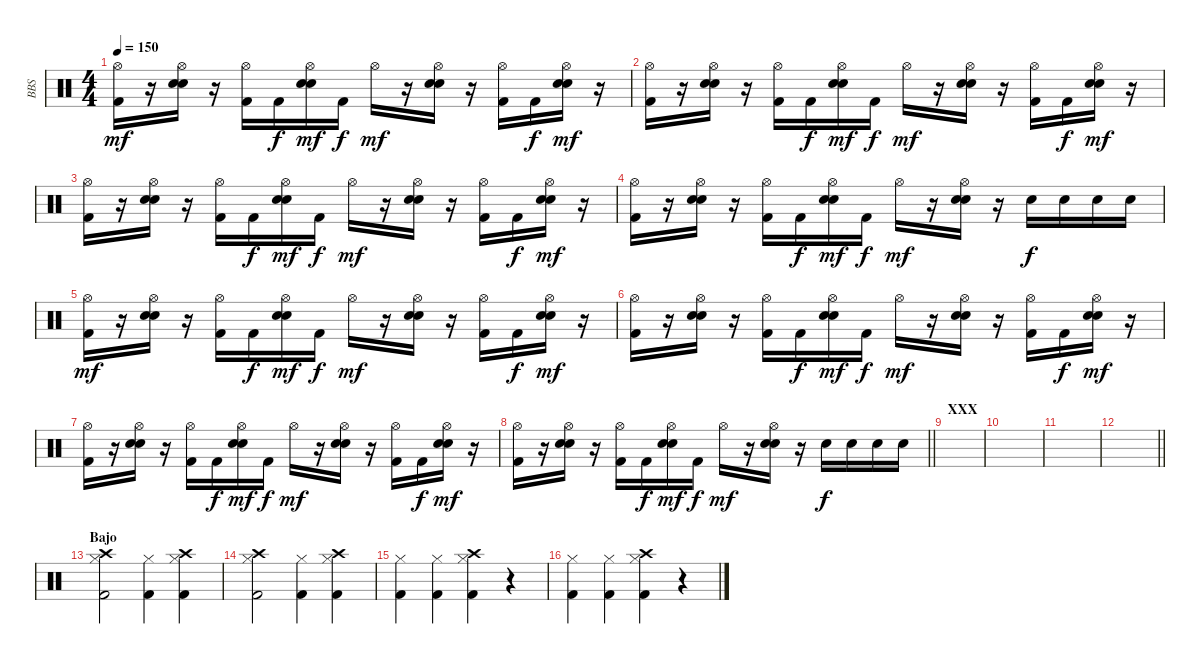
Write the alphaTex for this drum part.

\track ("BBS" "BBS") {instrument percussion}
\staff {score}
\articulation defaults
\ts (4 4)
\tempo 150
\clef neutral
\ks c
("Kick (hit) 2" "Hi-Hat (open)").16{dy mf} r.16 ("Electric Snare (hit)" "Electric Snare (hit)" "Hi-Hat (open)").16 r.16 ("Kick (hit) 2" "Hi-Hat (open)").16 "Kick (hit) 2".16{dy f} ("Electric Snare (hit)" "Electric Snare (hit)" "Hi-Hat (open)").16{dy mf} "Kick (hit) 2".16{dy f} "Hi-Hat (open)".16{dy mf} r.16 ("Electric Snare (hit)" "Electric Snare (hit)" "Hi-Hat (open)").16 r.16 ("Kick (hit) 2" "Hi-Hat (open)").16 "Kick (hit) 2".16{dy f} ("Electric Snare (hit)" "Electric Snare (hit)" "Hi-Hat (open)").16{dy mf} r.16 |
("Kick (hit) 2" "Hi-Hat (open)").16 r.16 ("Electric Snare (hit)" "Electric Snare (hit)" "Hi-Hat (open)").16 r.16 ("Kick (hit) 2" "Hi-Hat (open)").16 "Kick (hit) 2".16{dy f} ("Electric Snare (hit)" "Electric Snare (hit)" "Hi-Hat (open)").16{dy mf} "Kick (hit) 2".16{dy f} "Hi-Hat (open)".16{dy mf} r.16 ("Electric Snare (hit)" "Electric Snare (hit)" "Hi-Hat (open)").16 r.16 ("Kick (hit) 2" "Hi-Hat (open)").16 "Kick (hit) 2".16{dy f} ("Electric Snare (hit)" "Electric Snare (hit)" "Hi-Hat (open)").16{dy mf} r.16 |
("Kick (hit) 2" "Hi-Hat (open)").16 r.16 ("Electric Snare (hit)" "Electric Snare (hit)" "Hi-Hat (open)").16 r.16 ("Kick (hit) 2" "Hi-Hat (open)").16 "Kick (hit) 2".16{dy f} ("Electric Snare (hit)" "Electric Snare (hit)" "Hi-Hat (open)").16{dy mf} "Kick (hit) 2".16{dy f} "Hi-Hat (open)".16{dy mf} r.16 ("Electric Snare (hit)" "Electric Snare (hit)" "Hi-Hat (open)").16 r.16 ("Kick (hit) 2" "Hi-Hat (open)").16 "Kick (hit) 2".16{dy f} ("Electric Snare (hit)" "Electric Snare (hit)" "Hi-Hat (open)").16{dy mf} r.16 |
("Kick (hit) 2" "Hi-Hat (open)").16 r.16 ("Electric Snare (hit)" "Electric Snare (hit)" "Hi-Hat (open)").16 r.16 ("Kick (hit) 2" "Hi-Hat (open)").16 "Kick (hit) 2".16{dy f} ("Electric Snare (hit)" "Electric Snare (hit)" "Hi-Hat (open)").16{dy mf} "Kick (hit) 2".16{dy f} "Hi-Hat (open)".16{dy mf} r.16 ("Electric Snare (hit)" "Electric Snare (hit)" "Hi-Hat (open)").16 r.16 "Electric Snare (hit)".16{dy f} "Electric Snare (hit)".16 "Electric Snare (hit)".16 "Electric Snare (hit)".16 |
("Kick (hit) 2" "Hi-Hat (open)").16{dy mf} r.16 ("Electric Snare (hit)" "Electric Snare (hit)" "Hi-Hat (open)").16 r.16 ("Kick (hit) 2" "Hi-Hat (open)").16 "Kick (hit) 2".16{dy f} ("Electric Snare (hit)" "Electric Snare (hit)" "Hi-Hat (open)").16{dy mf} "Kick (hit) 2".16{dy f} "Hi-Hat (open)".16{dy mf} r.16 ("Electric Snare (hit)" "Electric Snare (hit)" "Hi-Hat (open)").16 r.16 ("Kick (hit) 2" "Hi-Hat (open)").16 "Kick (hit) 2".16{dy f} ("Electric Snare (hit)" "Electric Snare (hit)" "Hi-Hat (open)").16{dy mf} r.16 |
("Kick (hit) 2" "Hi-Hat (open)").16 r.16 ("Electric Snare (hit)" "Electric Snare (hit)" "Hi-Hat (open)").16 r.16 ("Kick (hit) 2" "Hi-Hat (open)").16 "Kick (hit) 2".16{dy f} ("Electric Snare (hit)" "Electric Snare (hit)" "Hi-Hat (open)").16{dy mf} "Kick (hit) 2".16{dy f} "Hi-Hat (open)".16{dy mf} r.16 ("Electric Snare (hit)" "Electric Snare (hit)" "Hi-Hat (open)").16 r.16 ("Kick (hit) 2" "Hi-Hat (open)").16 "Kick (hit) 2".16{dy f} ("Electric Snare (hit)" "Electric Snare (hit)" "Hi-Hat (open)").16{dy mf} r.16 |
("Kick (hit) 2" "Hi-Hat (open)").16 r.16 ("Electric Snare (hit)" "Electric Snare (hit)" "Hi-Hat (open)").16 r.16 ("Kick (hit) 2" "Hi-Hat (open)").16 "Kick (hit) 2".16{dy f} ("Electric Snare (hit)" "Electric Snare (hit)" "Hi-Hat (open)").16{dy mf} "Kick (hit) 2".16{dy f} "Hi-Hat (open)".16{dy mf} r.16 ("Electric Snare (hit)" "Electric Snare (hit)" "Hi-Hat (open)").16 r.16 ("Kick (hit) 2" "Hi-Hat (open)").16 "Kick (hit) 2".16{dy f} ("Electric Snare (hit)" "Electric Snare (hit)" "Hi-Hat (open)").16{dy mf} r.16 |
\barLineRight lightlight
("Kick (hit) 2" "Hi-Hat (open)").16 r.16 ("Electric Snare (hit)" "Electric Snare (hit)" "Hi-Hat (open)").16 r.16 ("Kick (hit) 2" "Hi-Hat (open)").16 "Kick (hit) 2".16{dy f} ("Electric Snare (hit)" "Electric Snare (hit)" "Hi-Hat (open)").16{dy mf} "Kick (hit) 2".16{dy f} "Hi-Hat (open)".16{dy mf} r.16 ("Electric Snare (hit)" "Electric Snare (hit)" "Hi-Hat (open)").16 r.16 "Electric Snare (hit)".16{dy f} "Electric Snare (hit)".16 "Electric Snare (hit)".16 "Electric Snare (hit)".16 |
\section ("" "XXX")
|
|
|
\barLineRight lightlight
|
\section ("" "Bajo")
("Hi-Hat (closed)" "Kick (hit) 2" "Crash high (hit)").2 ("Hi-Hat (closed)" "Kick (hit) 2").4 ("Hi-Hat (closed)" "Kick (hit) 2" "Crash high (hit)").4 |
("Hi-Hat (closed)" "Kick (hit) 2" "Crash high (hit)").2 ("Hi-Hat (closed)" "Kick (hit) 2").4 ("Hi-Hat (closed)" "Kick (hit) 2" "Crash high (hit)").4 |
("Hi-Hat (closed)" "Kick (hit) 2").4 ("Hi-Hat (closed)" "Kick (hit) 2").4 ("Hi-Hat (closed)" "Kick (hit) 2" "Crash high (hit)").4 r.4 |
("Hi-Hat (closed)" "Kick (hit) 2").4 ("Hi-Hat (closed)" "Kick (hit) 2").4 ("Hi-Hat (closed)" "Kick (hit) 2" "Crash high (hit)").4 r.4
